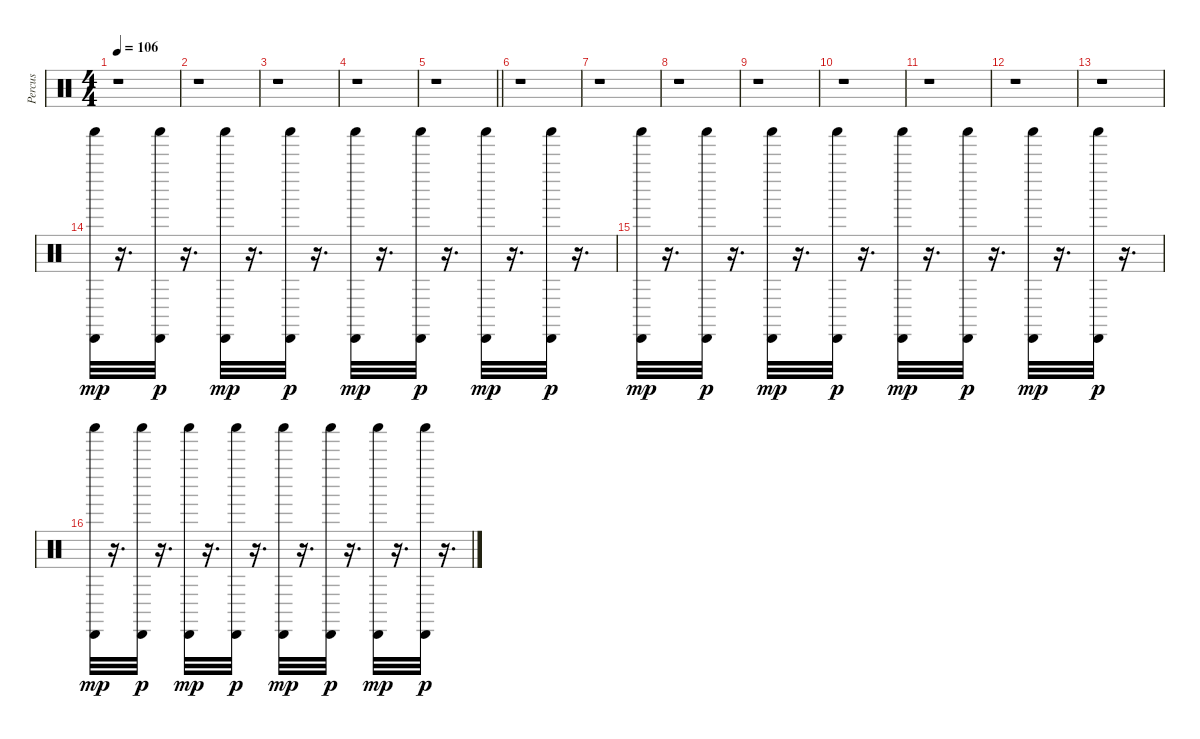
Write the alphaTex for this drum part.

\track ("Percus" "Percus") {instrument percussion}
\staff {score}
\articulation defaults
\ts (4 4)
\tempo 106
\clef neutral
\ks c
r.1{dy mp} |
r.1 |
r.1 |
r.1 |
\barLineRight lightlight
r.1 |
r.1 |
r.1 |
r.1 |
r.1 |
r.1 |
r.1 |
r.1 |
r.1 |
("Shaker (hit)" "Cabasa (hit)").32 r.16{d} ("Shaker (hit)" "Cabasa (hit)").32{dy p} r.16{d} ("Shaker (hit)" "Cabasa (hit)").32{dy mp} r.16{d} ("Shaker (hit)" "Cabasa (hit)").32{dy p} r.16{d} ("Shaker (hit)" "Cabasa (hit)").32{dy mp} r.16{d} ("Shaker (hit)" "Cabasa (hit)").32{dy p} r.16{d} ("Shaker (hit)" "Cabasa (hit)").32{dy mp} r.16{d} ("Shaker (hit)" "Cabasa (hit)").32{dy p} r.16{d} |
("Shaker (hit)" "Cabasa (hit)").32{dy mp} r.16{d} ("Shaker (hit)" "Cabasa (hit)").32{dy p} r.16{d} ("Shaker (hit)" "Cabasa (hit)").32{dy mp} r.16{d} ("Shaker (hit)" "Cabasa (hit)").32{dy p} r.16{d} ("Shaker (hit)" "Cabasa (hit)").32{dy mp} r.16{d} ("Shaker (hit)" "Cabasa (hit)").32{dy p} r.16{d} ("Shaker (hit)" "Cabasa (hit)").32{dy mp} r.16{d} ("Shaker (hit)" "Cabasa (hit)").32{dy p} r.16{d} |
("Shaker (hit)" "Cabasa (hit)").32{dy mp} r.16{d} ("Shaker (hit)" "Cabasa (hit)").32{dy p} r.16{d} ("Shaker (hit)" "Cabasa (hit)").32{dy mp} r.16{d} ("Shaker (hit)" "Cabasa (hit)").32{dy p} r.16{d} ("Shaker (hit)" "Cabasa (hit)").32{dy mp} r.16{d} ("Shaker (hit)" "Cabasa (hit)").32{dy p} r.16{d} ("Shaker (hit)" "Cabasa (hit)").32{dy mp} r.16{d} ("Shaker (hit)" "Cabasa (hit)").32{dy p} r.16{d}
